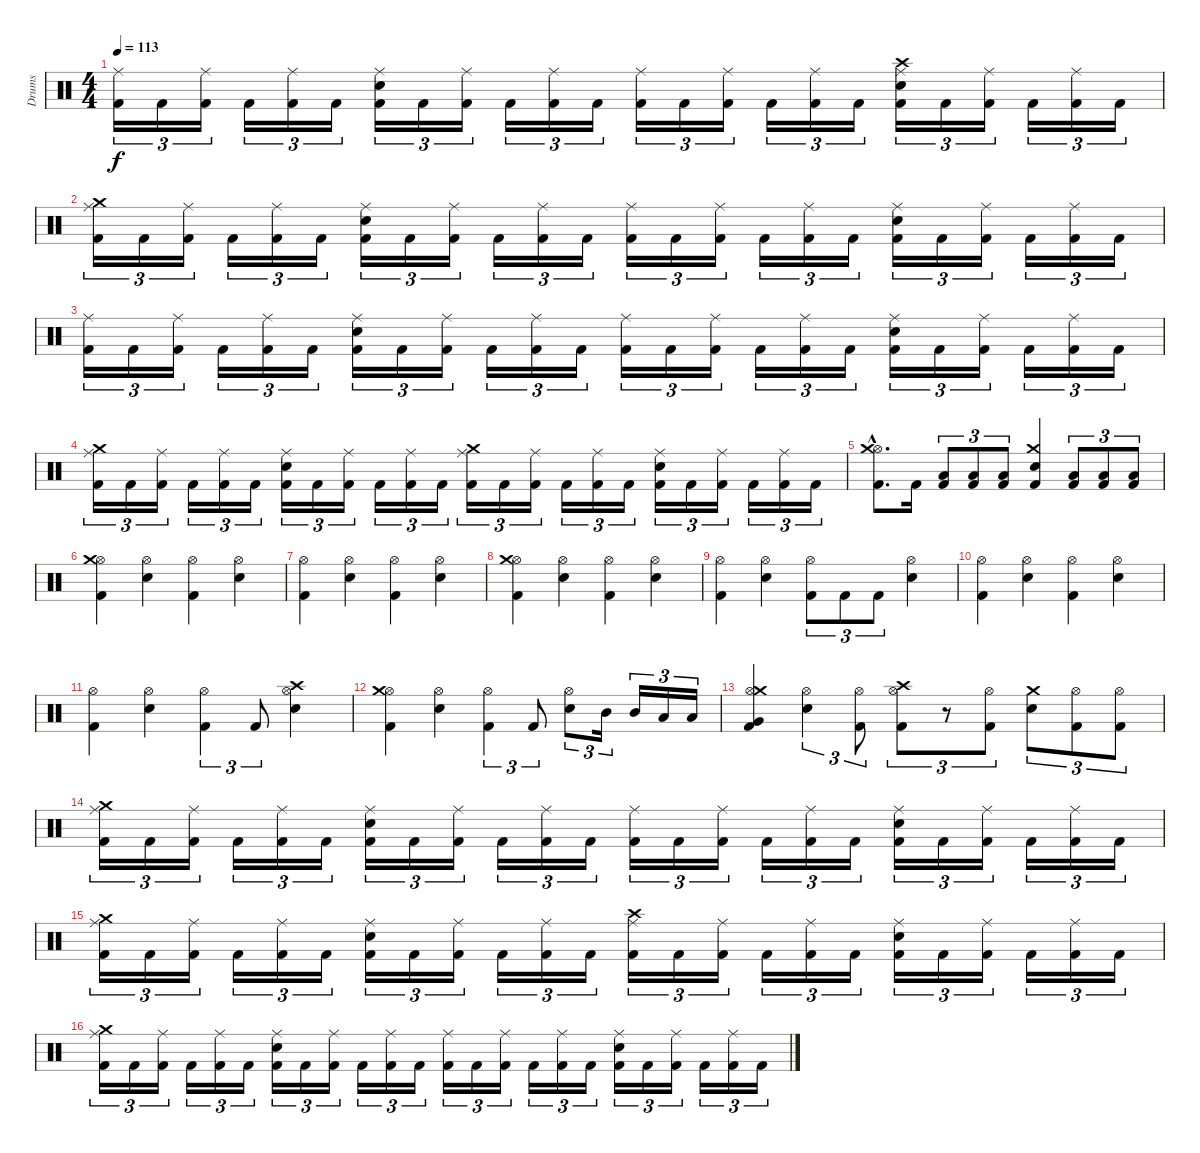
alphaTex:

\track ("Drums" "Drums") {instrument percussion}
\staff {score}
\articulation defaults
\ts (4 4)
\tempo 113
\clef neutral
\ks c
("Kick (hit) 2" "Ride (middle)").16{tu (3 2) dy f} "Kick (hit) 2".16{tu (3 2)} ("Kick (hit) 2" "Ride (middle)").16{tu (3 2)} "Kick (hit) 2".16{tu (3 2)} ("Kick (hit) 2" "Ride (middle)").16{tu (3 2)} "Kick (hit) 2".16{tu (3 2)} ("Kick (hit) 2" "Snare (hit) 2" "Ride (middle)").16{tu (3 2)} "Kick (hit) 2".16{tu (3 2)} ("Kick (hit) 2" "Ride (middle)").16{tu (3 2)} "Kick (hit) 2".16{tu (3 2)} ("Kick (hit) 2" "Ride (middle)").16{tu (3 2)} "Kick (hit) 2".16{tu (3 2)} ("Kick (hit) 2" "Ride (middle)").16{tu (3 2)} "Kick (hit) 2".16{tu (3 2)} ("Kick (hit) 2" "Ride (middle)").16{tu (3 2)} "Kick (hit) 2".16{tu (3 2)} ("Kick (hit) 2" "Ride (middle)").16{tu (3 2)} "Kick (hit) 2".16{tu (3 2)} ("Kick (hit) 2" "Snare (hit) 2" "Ride (middle)" "Crash high (hit)").16{tu (3 2)} "Kick (hit) 2".16{tu (3 2)} ("Kick (hit) 2" "Ride (middle)").16{tu (3 2)} "Kick (hit) 2".16{tu (3 2)} ("Kick (hit) 2" "Ride (middle)").16{tu (3 2)} "Kick (hit) 2".16{tu (3 2)} |
("Kick (hit) 2" "Ride (middle)" "Crash medium (hit)").16{tu (3 2)} "Kick (hit) 2".16{tu (3 2)} ("Kick (hit) 2" "Ride (middle)").16{tu (3 2)} "Kick (hit) 2".16{tu (3 2)} ("Kick (hit) 2" "Ride (middle)").16{tu (3 2)} "Kick (hit) 2".16{tu (3 2)} ("Kick (hit) 2" "Snare (hit) 2" "Ride (middle)").16{tu (3 2)} "Kick (hit) 2".16{tu (3 2)} ("Kick (hit) 2" "Ride (middle)").16{tu (3 2)} "Kick (hit) 2".16{tu (3 2)} ("Kick (hit) 2" "Ride (middle)").16{tu (3 2)} "Kick (hit) 2".16{tu (3 2)} ("Kick (hit) 2" "Ride (middle)").16{tu (3 2)} "Kick (hit) 2".16{tu (3 2)} ("Kick (hit) 2" "Ride (middle)").16{tu (3 2)} "Kick (hit) 2".16{tu (3 2)} ("Kick (hit) 2" "Ride (middle)").16{tu (3 2)} "Kick (hit) 2".16{tu (3 2)} ("Kick (hit) 2" "Snare (hit) 2" "Ride (middle)").16{tu (3 2)} "Kick (hit) 2".16{tu (3 2)} ("Kick (hit) 2" "Ride (middle)").16{tu (3 2)} "Kick (hit) 2".16{tu (3 2)} ("Kick (hit) 2" "Ride (middle)").16{tu (3 2)} "Kick (hit) 2".16{tu (3 2)} |
("Kick (hit) 2" "Ride (middle)").16{tu (3 2)} "Kick (hit) 2".16{tu (3 2)} ("Kick (hit) 2" "Ride (middle)").16{tu (3 2)} "Kick (hit) 2".16{tu (3 2)} ("Kick (hit) 2" "Ride (middle)").16{tu (3 2)} "Kick (hit) 2".16{tu (3 2)} ("Kick (hit) 2" "Snare (hit) 2" "Ride (middle)").16{tu (3 2)} "Kick (hit) 2".16{tu (3 2)} ("Kick (hit) 2" "Ride (middle)").16{tu (3 2)} "Kick (hit) 2".16{tu (3 2)} ("Kick (hit) 2" "Ride (middle)").16{tu (3 2)} "Kick (hit) 2".16{tu (3 2)} ("Kick (hit) 2" "Ride (middle)").16{tu (3 2)} "Kick (hit) 2".16{tu (3 2)} ("Kick (hit) 2" "Ride (middle)").16{tu (3 2)} "Kick (hit) 2".16{tu (3 2)} ("Kick (hit) 2" "Ride (middle)").16{tu (3 2)} "Kick (hit) 2".16{tu (3 2)} ("Kick (hit) 2" "Snare (hit) 2" "Ride (middle)").16{tu (3 2)} "Kick (hit) 2".16{tu (3 2)} ("Kick (hit) 2" "Ride (middle)").16{tu (3 2)} "Kick (hit) 2".16{tu (3 2)} ("Kick (hit) 2" "Ride (middle)").16{tu (3 2)} "Kick (hit) 2".16{tu (3 2)} |
("Kick (hit) 2" "Ride (middle)" "Crash medium (hit)").16{tu (3 2)} "Kick (hit) 2".16{tu (3 2)} ("Kick (hit) 2" "Ride (middle)").16{tu (3 2)} "Kick (hit) 2".16{tu (3 2)} ("Kick (hit) 2" "Ride (middle)").16{tu (3 2)} "Kick (hit) 2".16{tu (3 2)} ("Kick (hit) 2" "Snare (hit) 2" "Ride (middle)").16{tu (3 2)} "Kick (hit) 2".16{tu (3 2)} ("Kick (hit) 2" "Ride (middle)").16{tu (3 2)} "Kick (hit) 2".16{tu (3 2)} ("Kick (hit) 2" "Ride (middle)").16{tu (3 2)} "Kick (hit) 2".16{tu (3 2)} ("Kick (hit) 2" "Ride (middle)" "Crash medium (hit)").16{tu (3 2)} "Kick (hit) 2".16{tu (3 2)} ("Kick (hit) 2" "Ride (middle)").16{tu (3 2)} "Kick (hit) 2".16{tu (3 2)} ("Kick (hit) 2" "Ride (middle)").16{tu (3 2)} "Kick (hit) 2".16{tu (3 2)} ("Kick (hit) 2" "Snare (hit) 2" "Ride (middle)").16{tu (3 2)} "Kick (hit) 2".16{tu (3 2)} ("Kick (hit) 2" "Ride (middle)").16{tu (3 2)} "Kick (hit) 2".16{tu (3 2)} ("Kick (hit) 2" "Ride (middle)").16{tu (3 2)} "Kick (hit) 2".16{tu (3 2)} |
("Kick (hit) 2"{hac} "Hi-Hat (open)"{hac} "Crash medium (hit)"{hac}).8{d} "Kick (hit) 2".16 ("Kick (hit) 2" "Low Tom (hit)").8{tu (3 2)} ("Kick (hit) 2" "Low Tom (hit)").8{tu (3 2)} ("Kick (hit) 2" "Low Tom (hit)").8{tu (3 2)} ("Kick (hit) 2" "Electric Snare (hit)" "Crash medium (hit)").4 ("Kick (hit) 2" "Low Tom (hit)").8{tu (3 2)} ("Kick (hit) 2" "Low Tom (hit)").8{tu (3 2)} ("Kick (hit) 2" "Low Tom (hit)").8{tu (3 2)} |
("Kick (hit) 2" "Hi-Hat (open)" "Crash medium (hit)").4 ("Snare (hit) 2" "Hi-Hat (open)").4 ("Kick (hit) 2" "Hi-Hat (open)").4 ("Snare (hit) 2" "Hi-Hat (open)").4 |
("Kick (hit) 2" "Hi-Hat (open)").4 ("Snare (hit) 2" "Hi-Hat (open)").4 ("Kick (hit) 2" "Hi-Hat (open)").4 ("Snare (hit) 2" "Hi-Hat (open)").4 |
("Kick (hit) 2" "Hi-Hat (open)" "Crash medium (hit)").4 ("Snare (hit) 2" "Hi-Hat (open)").4 ("Kick (hit) 2" "Hi-Hat (open)").4 ("Snare (hit) 2" "Hi-Hat (open)").4 |
("Kick (hit) 2" "Hi-Hat (open)").4 ("Snare (hit) 2" "Hi-Hat (open)").4 ("Kick (hit) 2" "Hi-Hat (open)").8{tu (3 2)} "Kick (hit) 2".8{tu (3 2)} "Kick (hit) 2".8{tu (3 2)} ("Snare (hit) 2" "Hi-Hat (open)").4 |
("Kick (hit) 2" "Hi-Hat (open)").4 ("Snare (hit) 2" "Hi-Hat (open)").4 ("Kick (hit) 2" "Hi-Hat (open)").4 ("Snare (hit) 2" "Hi-Hat (open)").4 |
("Kick (hit) 2" "Hi-Hat (open)").4 ("Snare (hit) 2" "Hi-Hat (open)").4 ("Kick (hit) 2" "Hi-Hat (open)").4{tu (3 2)} "Kick (hit) 2".8{tu (3 2)} ("Snare (hit) 2" "Hi-Hat (open)" "Crash high (hit)").4 |
("Kick (hit) 2" "Hi-Hat (open)" "Crash medium (hit)").4 ("Snare (hit) 2" "Hi-Hat (open)").4 ("Kick (hit) 2" "Hi-Hat (open)").4{tu (3 2)} "Kick (hit) 2".8{tu (3 2)} ("Snare (hit) 2" "Hi-Hat (open)").8{tu (3 2)} "Mid Tom (hit)".16{tu (3 2)} "Mid Tom (hit)".16{tu (3 2)} "Low Tom (hit)".16{tu (3 2)} "Low Tom (hit)".16{tu (3 2)} |
("Kick (hit) 2" "Very Low Tom (hit)" "Hi-Hat (open)" "Crash medium (hit)").4 ("Snare (hit) 2" "Hi-Hat (open)").4{tu (3 2)} ("Kick (hit) 2" "Hi-Hat (open)").8{tu (3 2)} ("Kick (hit) 2" "Hi-Hat (open)" "Crash high (hit)").8{tu (3 2)} r.8{tu (3 2)} ("Kick (hit) 2" "Hi-Hat (open)").8{tu (3 2)} ("Snare (hit) 2" "Crash medium (hit)").8{tu (3 2)} ("Kick (hit) 2" "Hi-Hat (open)").8{tu (3 2)} ("Kick (hit) 2" "Hi-Hat (open)").8{tu (3 2)} |
("Kick (hit) 2" "Ride (middle)" "Crash medium (hit)").16{tu (3 2) volume 12} "Kick (hit) 2".16{tu (3 2)} ("Kick (hit) 2" "Ride (middle)").16{tu (3 2)} "Kick (hit) 2".16{tu (3 2)} ("Kick (hit) 2" "Ride (middle)").16{tu (3 2)} "Kick (hit) 2".16{tu (3 2)} ("Kick (hit) 2" "Snare (hit) 2" "Ride (middle)").16{tu (3 2)} "Kick (hit) 2".16{tu (3 2)} ("Kick (hit) 2" "Ride (middle)").16{tu (3 2)} "Kick (hit) 2".16{tu (3 2)} ("Kick (hit) 2" "Ride (middle)").16{tu (3 2)} "Kick (hit) 2".16{tu (3 2)} ("Kick (hit) 2" "Ride (middle)").16{tu (3 2)} "Kick (hit) 2".16{tu (3 2)} ("Kick (hit) 2" "Ride (middle)").16{tu (3 2)} "Kick (hit) 2".16{tu (3 2)} ("Kick (hit) 2" "Ride (middle)").16{tu (3 2)} "Kick (hit) 2".16{tu (3 2)} ("Kick (hit) 2" "Snare (hit) 2" "Ride (middle)").16{tu (3 2)} "Kick (hit) 2".16{tu (3 2)} ("Kick (hit) 2" "Ride (middle)").16{tu (3 2)} "Kick (hit) 2".16{tu (3 2)} ("Kick (hit) 2" "Ride (middle)").16{tu (3 2)} "Kick (hit) 2".16{tu (3 2)} |
("Kick (hit) 2" "Ride (middle)" "Crash medium (hit)").16{tu (3 2)} "Kick (hit) 2".16{tu (3 2)} ("Kick (hit) 2" "Ride (middle)").16{tu (3 2)} "Kick (hit) 2".16{tu (3 2)} ("Kick (hit) 2" "Ride (middle)").16{tu (3 2)} "Kick (hit) 2".16{tu (3 2)} ("Kick (hit) 2" "Snare (hit) 2" "Ride (middle)").16{tu (3 2)} "Kick (hit) 2".16{tu (3 2)} ("Kick (hit) 2" "Ride (middle)").16{tu (3 2)} "Kick (hit) 2".16{tu (3 2)} ("Kick (hit) 2" "Ride (middle)").16{tu (3 2)} "Kick (hit) 2".16{tu (3 2)} ("Kick (hit) 2" "Ride (middle)" "Crash high (hit)").16{tu (3 2)} "Kick (hit) 2".16{tu (3 2)} ("Kick (hit) 2" "Ride (middle)").16{tu (3 2)} "Kick (hit) 2".16{tu (3 2)} ("Kick (hit) 2" "Ride (middle)").16{tu (3 2)} "Kick (hit) 2".16{tu (3 2)} ("Kick (hit) 2" "Snare (hit) 2" "Ride (middle)").16{tu (3 2)} "Kick (hit) 2".16{tu (3 2)} ("Kick (hit) 2" "Ride (middle)").16{tu (3 2)} "Kick (hit) 2".16{tu (3 2)} ("Kick (hit) 2" "Ride (middle)").16{tu (3 2)} "Kick (hit) 2".16{tu (3 2)} |
("Kick (hit) 2" "Ride (middle)" "Crash medium (hit)").16{tu (3 2) volume 8} "Kick (hit) 2".16{tu (3 2)} ("Kick (hit) 2" "Ride (middle)").16{tu (3 2)} "Kick (hit) 2".16{tu (3 2)} ("Kick (hit) 2" "Ride (middle)").16{tu (3 2)} "Kick (hit) 2".16{tu (3 2)} ("Kick (hit) 2" "Snare (hit) 2" "Ride (middle)").16{tu (3 2)} "Kick (hit) 2".16{tu (3 2)} ("Kick (hit) 2" "Ride (middle)").16{tu (3 2)} "Kick (hit) 2".16{tu (3 2)} ("Kick (hit) 2" "Ride (middle)").16{tu (3 2)} "Kick (hit) 2".16{tu (3 2)} ("Kick (hit) 2" "Ride (middle)").16{tu (3 2)} "Kick (hit) 2".16{tu (3 2)} ("Kick (hit) 2" "Ride (middle)").16{tu (3 2)} "Kick (hit) 2".16{tu (3 2)} ("Kick (hit) 2" "Ride (middle)").16{tu (3 2)} "Kick (hit) 2".16{tu (3 2)} ("Kick (hit) 2" "Snare (hit) 2" "Ride (middle)").16{tu (3 2)} "Kick (hit) 2".16{tu (3 2)} ("Kick (hit) 2" "Ride (middle)").16{tu (3 2)} "Kick (hit) 2".16{tu (3 2)} ("Kick (hit) 2" "Ride (middle)").16{tu (3 2)} "Kick (hit) 2".16{tu (3 2)}
